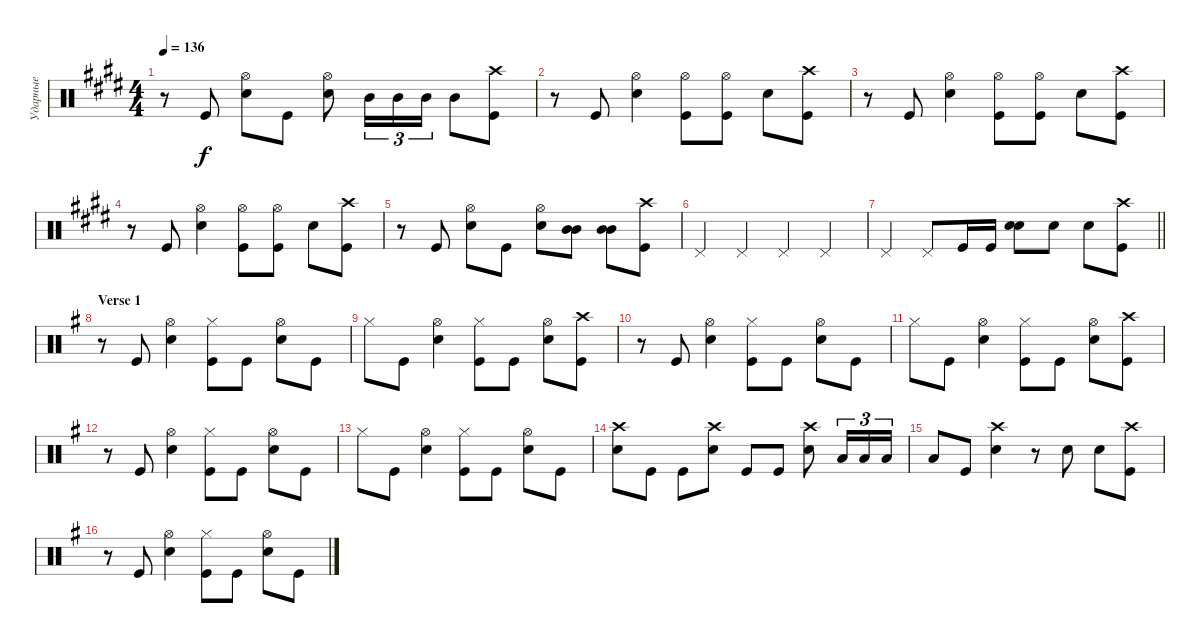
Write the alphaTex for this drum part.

\track ("Ударные" "Ударные") {instrument percussion}
\staff {score}
\articulation defaults
\ts (4 4)
\tempo 136
\clef neutral
\ks c#minor
r.8{dy f} "Kick (hit)".8 ("Snare (hit) 2" "Hi-Hat (open)").8 "Kick (hit)".8 ("Snare (hit) 2" "Hi-Hat (open)").8 "Mid Tom (hit)".16{tu (3 2)} "Mid Tom (hit)".16{tu (3 2)} "Mid Tom (hit)".16{tu (3 2)} "Mid Tom (hit)".8 ("Kick (hit)" "Crash high (hit)").8 |
r.8 "Kick (hit)".8 ("Snare (hit) 2" "Hi-Hat (open)").4 ("Kick (hit)" "Hi-Hat (open)").8 ("Kick (hit)" "Hi-Hat (open)").8 "Snare (hit) 2".8 ("Kick (hit)" "Crash high (hit)").8 |
r.8 "Kick (hit)".8 ("Snare (hit) 2" "Hi-Hat (open)").4 ("Kick (hit)" "Hi-Hat (open)").8 ("Kick (hit)" "Hi-Hat (open)").8 "Snare (hit) 2".8 ("Kick (hit)" "Crash high (hit)").8 |
r.8 "Kick (hit)".8 ("Snare (hit) 2" "Hi-Hat (open)").4 ("Kick (hit)" "Hi-Hat (open)").8 ("Kick (hit)" "Hi-Hat (open)").8 "Snare (hit) 2".8 ("Kick (hit)" "Crash high (hit)").8 |
r.8 "Kick (hit)".8 ("Snare (hit) 2" "Hi-Hat (open)").8 "Kick (hit)".8 ("Snare (hit) 2" "Hi-Hat (open)").8 ("Mid Tom (hit)" "Mid Tom (hit)").8 ("Mid Tom (hit)" "Mid Tom (hit)").8{bd 240} ("Kick (hit)" "Crash high (hit)").8 |
"Pedal Hi-Hat (hit)".4 "Pedal Hi-Hat (hit)".4 "Pedal Hi-Hat (hit)".4 "Pedal Hi-Hat (hit)".4 |
\barLineRight lightlight "Pedal Hi-Hat (hit)".4 "Pedal Hi-Hat (hit)".8 "Kick (hit)".16 "Kick (hit)".16
("Snare (hit) 2" "Snare (hit) 2").8{bd 240} "Snare (hit) 2".8 "Snare (hit) 2".8 ("Kick (hit)" "Crash high (hit)").8 |
\section ("" "Verse 1")
\ks eminor
r.8 "Kick (hit)".8 ("Snare (hit) 2" "Hi-Hat (open)").4 ("Kick (hit)" "Hi-Hat (closed)").8 "Kick (hit)".8 ("Snare (hit) 2" "Hi-Hat (open)").8 "Kick (hit)".8 |
"Hi-Hat (closed)".8 "Kick (hit)".8 ("Snare (hit) 2" "Hi-Hat (open)").4 ("Kick (hit)" "Hi-Hat (closed)").8 "Kick (hit)".8 ("Snare (hit) 2" "Hi-Hat (open)").8 ("Kick (hit)" "Crash high (hit)").8 |
r.8 "Kick (hit)".8 ("Snare (hit) 2" "Hi-Hat (open)").4 ("Kick (hit)" "Hi-Hat (closed)").8 "Kick (hit)".8 ("Snare (hit) 2" "Hi-Hat (open)").8 "Kick (hit)".8 |
"Hi-Hat (closed)".8 "Kick (hit)".8 ("Snare (hit) 2" "Hi-Hat (open)").4 ("Kick (hit)" "Hi-Hat (closed)").8 "Kick (hit)".8 ("Snare (hit) 2" "Hi-Hat (open)").8 ("Kick (hit)" "Crash high (hit)").8 |
r.8 "Kick (hit)".8 ("Snare (hit) 2" "Hi-Hat (open)").4 ("Kick (hit)" "Hi-Hat (closed)").8 "Kick (hit)".8 ("Snare (hit) 2" "Hi-Hat (open)").8 "Kick (hit)".8 |
"Hi-Hat (closed)".8 "Kick (hit)".8 ("Snare (hit) 2" "Hi-Hat (open)").4 ("Kick (hit)" "Hi-Hat (closed)").8 "Kick (hit)".8 ("Snare (hit) 2" "Hi-Hat (open)").8 "Kick (hit)".8 |
("Snare (hit) 2" "Crash high (hit)").8 "Kick (hit)".8 "Kick (hit)".8 ("Snare (hit) 2" "Crash high (hit)").8 "Kick (hit)".8 "Kick (hit)".8 ("Snare (hit) 2" "Crash high (hit)").8 "Low Tom (hit)".16{tu (3 2)} "Low Tom (hit)".16{tu (3 2)} "Low Tom (hit)".16{tu (3 2)} |
"Low Tom (hit)".8 "Kick (hit)".8 ("Snare (hit) 2" "Crash high (hit)").4 r.8 "Snare (hit) 2".8 "Snare (hit) 2".8 ("Kick (hit)" "Crash high (hit)").8 |
r.8 "Kick (hit)".8 ("Snare (hit) 2" "Hi-Hat (open)").4 ("Kick (hit)" "Hi-Hat (closed)").8 "Kick (hit)".8 ("Snare (hit) 2" "Hi-Hat (open)").8 "Kick (hit)".8
